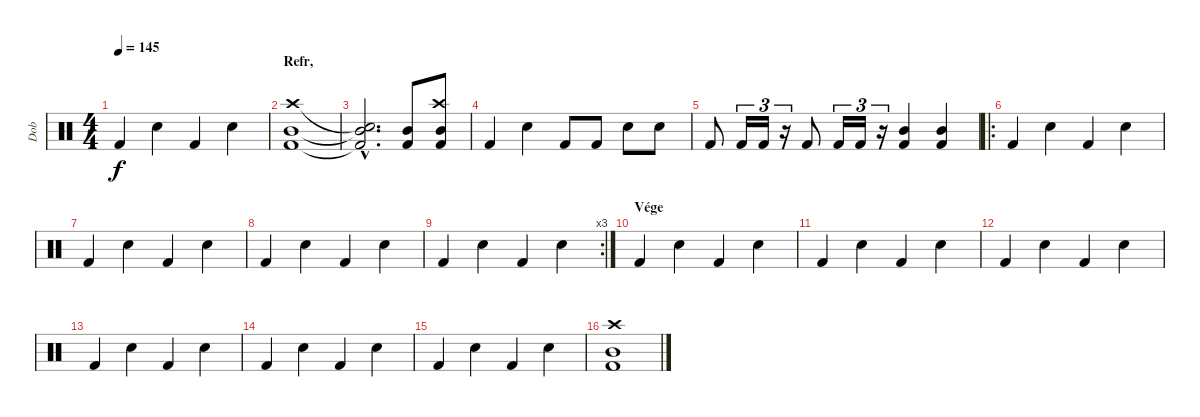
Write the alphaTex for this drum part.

\track ("Dob" "Dob") {instrument percussion}
\staff {score}
\articulation defaults
\ts (4 4)
\tempo 145
\clef neutral
\ks c "Kick (hit) 2".4{dy f} "Electric Snare (hit)".4 "Kick (hit) 2".4 "Electric Snare (hit)".4
|
\section ("" "Refr,")
("Crash high (hit)" "Mid Tom (hit)" "Kick (hit) 2").1 |
("Snare (hit)"{hac t} "Mid Tom (hit)"{hac t} "Kick (hit) 2"{hac t}).2{d} ("Mid Tom (hit)" "Kick (hit) 2").8 ("Crash high (hit)" "Mid Tom (hit)" "Kick (hit) 2").8 |
"Kick (hit) 2".4 "Electric Snare (hit)".4 "Kick (hit) 2".8 "Kick (hit) 2".8 "Electric Snare (hit)".8 "Electric Snare (hit)".8 |
"Kick (hit) 2".8 "Kick (hit) 2".16{tu (3 2)} "Kick (hit) 2".16{tu (3 2)} r.16{tu (3 2)} "Kick (hit) 2".8 "Kick (hit) 2".16{tu (3 2)} "Kick (hit) 2".16{tu (3 2)} r.16{tu (3 2)} ("Mid Tom (hit)" "Kick (hit) 2").4 ("Mid Tom (hit)" "Kick (hit) 2").4 |
\ro "Kick (hit) 2".4 "Electric Snare (hit)".4 "Kick (hit) 2".4 "Electric Snare (hit)".4
|
"Kick (hit) 2".4 "Electric Snare (hit)".4 "Kick (hit) 2".4 "Electric Snare (hit)".4 |
"Kick (hit) 2".4 "Electric Snare (hit)".4 "Kick (hit) 2".4 "Electric Snare (hit)".4 |
\rc 3 "Kick (hit) 2".4 "Electric Snare (hit)".4 "Kick (hit) 2".4 "Electric Snare (hit)".4
|
\section ("" "Vége")
"Kick (hit) 2".4 "Electric Snare (hit)".4 "Kick (hit) 2".4 "Electric Snare (hit)".4 |
"Kick (hit) 2".4 "Electric Snare (hit)".4 "Kick (hit) 2".4 "Electric Snare (hit)".4 |
"Kick (hit) 2".4 "Electric Snare (hit)".4 "Kick (hit) 2".4 "Electric Snare (hit)".4 |
"Kick (hit) 2".4 "Electric Snare (hit)".4 "Kick (hit) 2".4 "Electric Snare (hit)".4 |
"Kick (hit) 2".4 "Electric Snare (hit)".4 "Kick (hit) 2".4 "Electric Snare (hit)".4 |
"Kick (hit) 2".4 "Electric Snare (hit)".4 "Kick (hit) 2".4 "Electric Snare (hit)".4 |
("Crash high (hit)" "Mid Tom (hit)" "Kick (hit) 2").1{volume 8}
